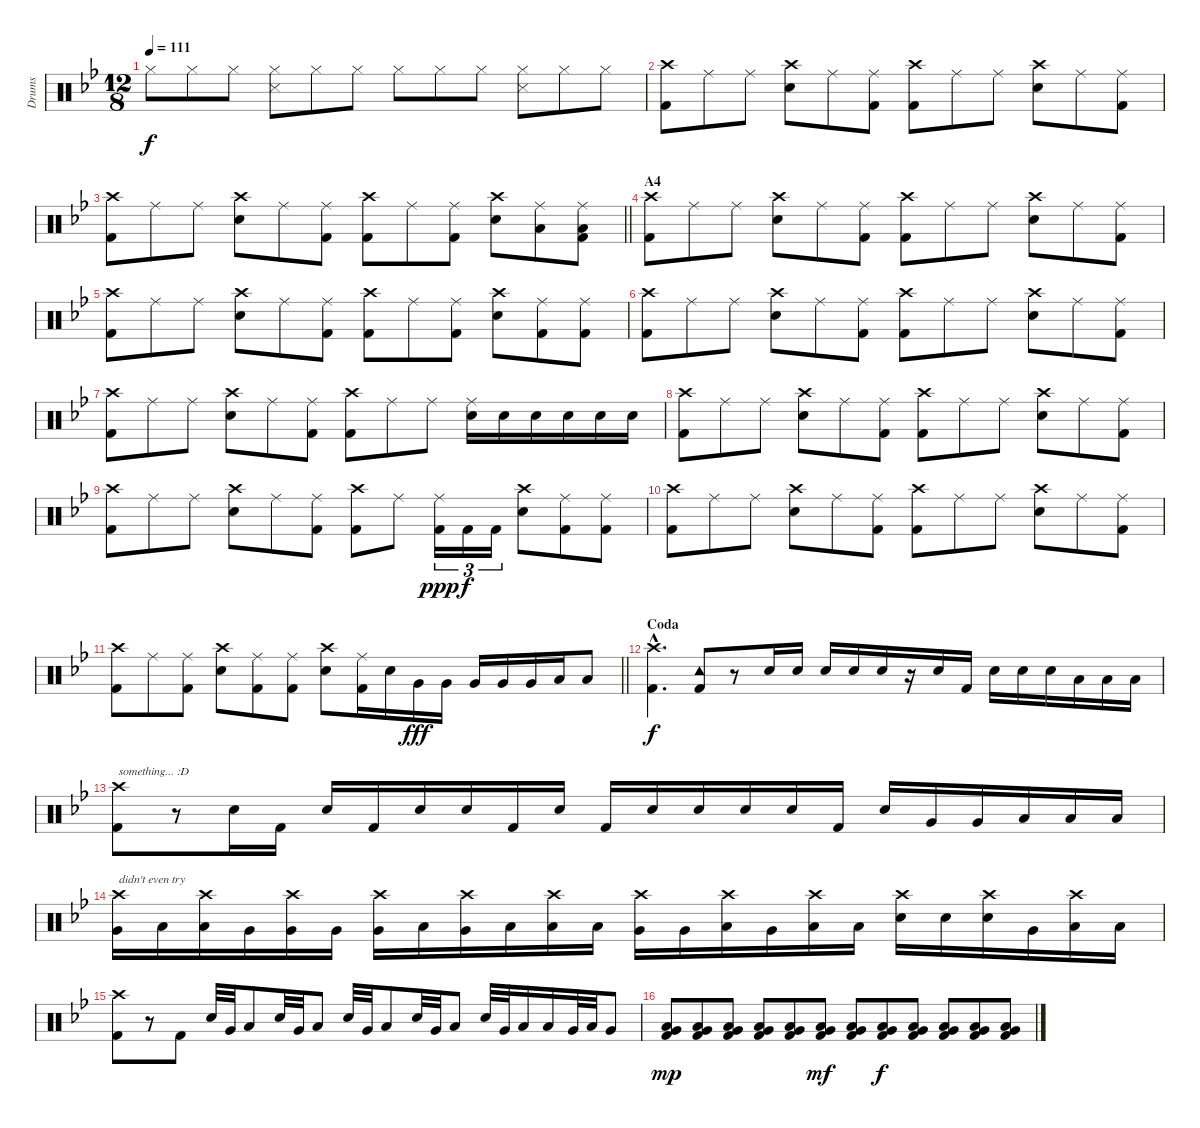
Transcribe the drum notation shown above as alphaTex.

\track ("Drums" "Drums") {instrument percussion}
\staff {score}
\articulation defaults
\ts (12 8)
\tempo 111
\clef neutral
\ks gminor "Hi-Hat (closed)".8{dy f} "Hi-Hat (closed)".8 "Hi-Hat (closed)".8
("Hi-Hat (closed)" "Snare (side stick) 3").8 "Hi-Hat (closed)".8 "Hi-Hat (closed)".8 "Hi-Hat (closed)".8 "Hi-Hat (closed)".8 "Hi-Hat (closed)".8 ("Hi-Hat (closed)" "Snare (side stick) 3").8 "Hi-Hat (closed)".8 "Hi-Hat (closed)".8 |
("Crash high (hit)" "Kick (hit) 2").8{volume 8} "Ride (middle)".8 "Ride (middle)".8 ("Crash high (hit)" "Electric Snare (hit)").8 "Ride (middle)".8 ("Ride (middle)" "Kick (hit) 2").8 ("Crash high (hit)" "Kick (hit) 2").8 "Ride (middle)".8 "Ride (middle)".8 ("Crash high (hit)" "Electric Snare (hit)").8 "Ride (middle)".8 ("Ride (middle)" "Kick (hit) 2").8 |
\barLineRight lightlight
("Crash high (hit)" "Kick (hit) 2").8 "Ride (middle)".8 "Ride (middle)".8 ("Crash high (hit)" "Electric Snare (hit)").8 "Ride (middle)".8 ("Ride (middle)" "Kick (hit) 2").8 ("Crash high (hit)" "Kick (hit) 2").8 "Ride (middle)".8 ("Ride (middle)" "Kick (hit) 2").8 ("Crash high (hit)" "Electric Snare (hit)").8 ("Ride (middle)" "Low Floor Tom (hit)").8 ("Ride (middle)" "Low Floor Tom (hit)" "Kick (hit) 2").8 |
\section ("" "A4")
("Crash high (hit)" "Kick (hit) 2").8 "Ride (middle)".8 "Ride (middle)".8 ("Crash high (hit)" "Electric Snare (hit)").8 "Ride (middle)".8 ("Ride (middle)" "Kick (hit) 2").8 ("Crash high (hit)" "Kick (hit) 2").8 "Ride (middle)".8 "Ride (middle)".8 ("Crash high (hit)" "Electric Snare (hit)").8 "Ride (middle)".8 ("Ride (middle)" "Kick (hit) 2").8 |
("Crash high (hit)" "Kick (hit) 2").8 "Ride (middle)".8 "Ride (middle)".8 ("Crash high (hit)" "Electric Snare (hit)").8 "Ride (middle)".8 ("Ride (middle)" "Kick (hit) 2").8 ("Crash high (hit)" "Kick (hit) 2").8 "Ride (middle)".8 ("Ride (middle)" "Kick (hit) 2").8 ("Crash high (hit)" "Electric Snare (hit)").8 ("Ride (middle)" "Kick (hit) 2").8 ("Ride (middle)" "Kick (hit) 2").8 |
("Crash high (hit)" "Kick (hit) 2").8 "Ride (middle)".8 "Ride (middle)".8 ("Crash high (hit)" "Electric Snare (hit)").8 "Ride (middle)".8 ("Ride (middle)" "Kick (hit) 2").8 ("Crash high (hit)" "Kick (hit) 2").8 "Ride (middle)".8 "Ride (middle)".8 ("Crash high (hit)" "Electric Snare (hit)").8 "Ride (middle)".8 ("Ride (middle)" "Kick (hit) 2").8 |
("Crash high (hit)" "Kick (hit) 2").8 "Ride (middle)".8 "Ride (middle)".8 ("Crash high (hit)" "Electric Snare (hit)").8 "Ride (middle)".8 ("Ride (middle)" "Kick (hit) 2").8 ("Crash high (hit)" "Kick (hit) 2").8 "Ride (middle)".8 "Ride (middle)".8 ("Ride (middle)" "Electric Snare (hit)").16 "Electric Snare (hit)".16 "Electric Snare (hit)".16 "Electric Snare (hit)".16 "Electric Snare (hit)".16 "Electric Snare (hit)".16 |
("Crash high (hit)" "Kick (hit) 2").8 "Ride (middle)".8 "Ride (middle)".8 ("Crash high (hit)" "Electric Snare (hit)").8 "Ride (middle)".8 ("Ride (middle)" "Kick (hit) 2").8 ("Crash high (hit)" "Kick (hit) 2").8 "Ride (middle)".8 "Ride (middle)".8 ("Crash high (hit)" "Electric Snare (hit)").8 "Ride (middle)".8 ("Ride (middle)" "Kick (hit) 2").8 |
("Crash high (hit)" "Kick (hit) 2").8 "Ride (middle)".8 "Ride (middle)".8 ("Crash high (hit)" "Electric Snare (hit)").8 "Ride (middle)".8 ("Ride (middle)" "Kick (hit) 2").8 ("Crash high (hit)" "Kick (hit) 2").8 "Ride (middle)".8 ("Ride (middle)" "Kick (hit) 2").16{tu (3 2) dy ppp} "Kick (hit) 2".16{tu (3 2) dy f} "Kick (hit) 2".16{tu (3 2)} ("Crash high (hit)" "Electric Snare (hit)").8 ("Ride (middle)" "Kick (hit) 2").8 ("Ride (middle)" "Kick (hit) 2").8 |
("Crash high (hit)" "Kick (hit) 2").8 "Ride (middle)".8 "Ride (middle)".8 ("Crash high (hit)" "Electric Snare (hit)").8 "Ride (middle)".8 ("Ride (middle)" "Kick (hit) 2").8 ("Crash high (hit)" "Kick (hit) 2").8 "Ride (middle)".8 "Ride (middle)".8 ("Crash high (hit)" "Electric Snare (hit)").8 "Ride (middle)".8 ("Ride (middle)" "Kick (hit) 2").8 |
\barLineRight lightlight
("Crash high (hit)" "Kick (hit) 2").8 "Ride (middle)".8 ("Ride (middle)" "Kick (hit) 2").8 ("Crash high (hit)" "Electric Snare (hit)").8 ("Ride (middle)" "Kick (hit) 2").8 ("Ride (middle)" "Kick (hit) 2").8 ("Crash high (hit)" "Electric Snare (hit)").8 ("Ride (middle)" "Kick (hit) 2").16 "Electric Snare (hit)".16 "Very Low Tom (hit)".16{dy fff} "Very Low Tom (hit)".16 "Very Low Tom (hit)".16 "Very Low Tom (hit)".16 "Very Low Tom (hit)".16 "Low Floor Tom (hit)".16 "Low Floor Tom (hit)".8 |
\section ("" "Coda")
("Crash high (hit)"{hac} "Kick (hit) 2"{hac}).4{d dy f} ("Tambourine (hit)" "Kick (hit) 2").8 r.8 "Electric Snare (hit)".16 "Electric Snare (hit)".16 "Electric Snare (hit)".16 "Electric Snare (hit)".16 "Electric Snare (hit)".16 r.16 "Electric Snare (hit)".16 "Kick (hit) 2".16 "Electric Snare (hit)".16 "Electric Snare (hit)".16 "Electric Snare (hit)".16 "Low Floor Tom (hit)".16 "Low Floor Tom (hit)".16 "Low Floor Tom (hit)".16 |
("Crash high (hit)" "Kick (hit) 2").8{txt "something... :D"} r.8 "Electric Snare (hit)".16 "Kick (hit) 2".16 "Electric Snare (hit)".16 "Kick (hit) 2".16 "Electric Snare (hit)".16 "Electric Snare (hit)".16 "Kick (hit) 2".16 "Electric Snare (hit)".16 "Kick (hit) 2".16 "Electric Snare (hit)".16 "Electric Snare (hit)".16 "Electric Snare (hit)".16 "Electric Snare (hit)".16 "Kick (hit) 2".16 "Electric Snare (hit)".16 "Very Low Tom (hit)".16 "Very Low Tom (hit)".16 "Low Floor Tom (hit)".16 "Low Floor Tom (hit)".16 "Low Floor Tom (hit)".16 |
("Crash high (hit)" "Very Low Tom (hit)").16{txt "didn't even try"} "Low Tom (hit)".16 ("Crash high (hit)" "Low Floor Tom (hit)").16 "Very Low Tom (hit)".16 ("Crash high (hit)" "Very Low Tom (hit)").16 "Very Low Tom (hit)".16 ("Crash high (hit)" "Very Low Tom (hit)").16 "Low Floor Tom (hit)".16 ("Crash high (hit)" "Very Low Tom (hit)").16 "Low Tom (hit)".16 ("Crash high (hit)" "Low Tom (hit)").16 "Low Floor Tom (hit)".16 ("Crash high (hit)" "Very Low Tom (hit)").16 "Very Low Tom (hit)".16 ("Crash high (hit)" "Low Tom (hit)").16 "Very Low Tom (hit)".16 ("Crash high (hit)" "Low Floor Tom (hit)").16 "Low Floor Tom (hit)".16 ("Crash high (hit)" "Electric Snare (hit)").16 "Electric Snare (hit)".16 ("Crash high (hit)" "Electric Snare (hit)").16 "Very Low Tom (hit)".16 ("Crash high (hit)" "Low Floor Tom (hit)").16 "Low Floor Tom (hit)".16 |
("Crash high (hit)" "Kick (hit) 2").8 r.8 "Kick (hit) 2".8 "Electric Snare (hit)".32 "Very Low Tom (hit)".32 "Low Floor Tom (hit)".8 "Electric Snare (hit)".32 "Very Low Tom (hit)".32 "Low Floor Tom (hit)".8 "Electric Snare (hit)".32 "Very Low Tom (hit)".32 "Low Floor Tom (hit)".8 "Electric Snare (hit)".32 "Very Low Tom (hit)".32 "Low Floor Tom (hit)".8 "Electric Snare (hit)".32 "Very Low Tom (hit)".32 "Low Floor Tom (hit)".16 "Low Floor Tom (hit)".16 "Very Low Tom (hit)".32 "Low Floor Tom (hit)".32 "Very Low Tom (hit)".8 |
("Very Low Tom (hit)" "Low Floor Tom (hit)" "Kick (hit) 2").8{dy mp} ("Very Low Tom (hit)" "Low Floor Tom (hit)" "Kick (hit) 2").8 ("Very Low Tom (hit)" "Low Floor Tom (hit)" "Kick (hit) 2").8 ("Very Low Tom (hit)" "Low Floor Tom (hit)" "Kick (hit) 2").8 ("Very Low Tom (hit)" "Low Floor Tom (hit)" "Kick (hit) 2").8 ("Very Low Tom (hit)" "Low Floor Tom (hit)" "Kick (hit) 2").8{dy mf} ("Very Low Tom (hit)" "Low Floor Tom (hit)" "Kick (hit) 2").8 ("Very Low Tom (hit)" "Low Floor Tom (hit)" "Kick (hit) 2").8{dy f} ("Very Low Tom (hit)" "Low Floor Tom (hit)" "Kick (hit) 2").8 ("Very Low Tom (hit)" "Low Floor Tom (hit)" "Kick (hit) 2").8 ("Very Low Tom (hit)" "Low Floor Tom (hit)" "Kick (hit) 2").8 ("Very Low Tom (hit)" "Low Floor Tom (hit)" "Kick (hit) 2").8
